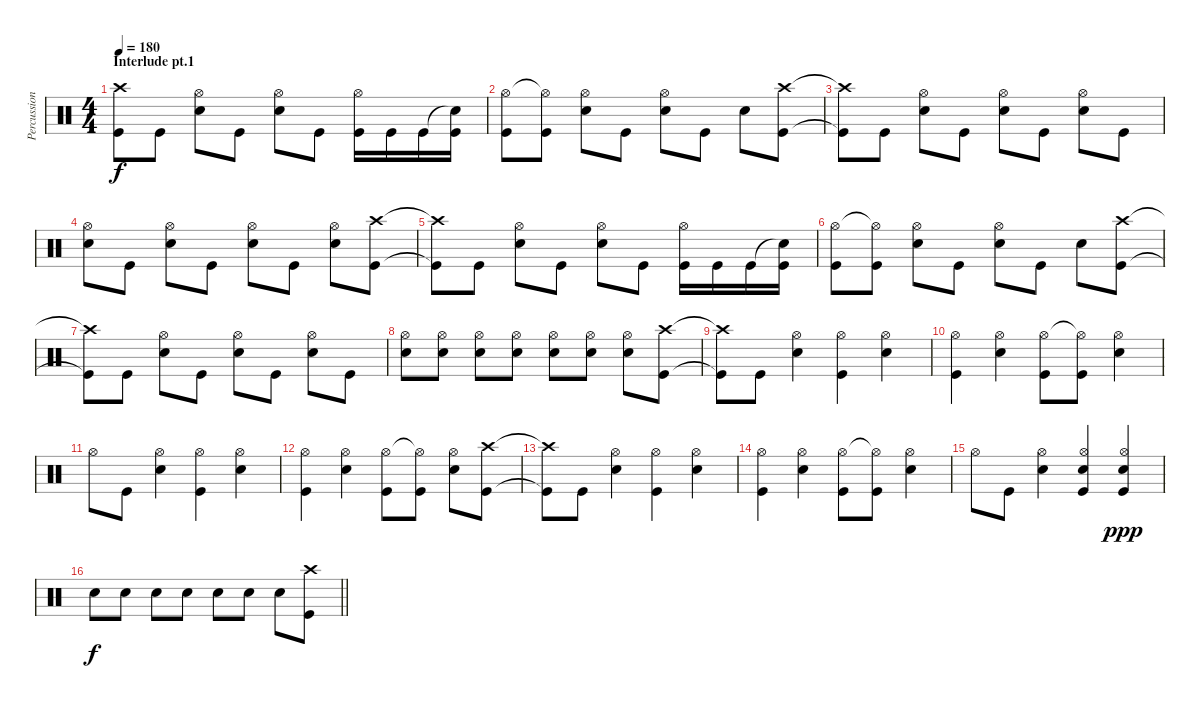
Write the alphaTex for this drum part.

\track ("Percussion" "Percussion") {instrument percussion}
\staff {score}
\articulation defaults
\ts (4 4)
\section ("" "Interlude pt.1")
\tempo 180
\clef neutral
\ks c
("Crash high (hit)"{t} "Kick (hit)"{t}).8{dy f} "Kick (hit)".8 ("Hi-Hat (open)" "Snare (hit) 2").8 "Kick (hit)".8 ("Hi-Hat (open)" "Snare (hit) 2").8 "Kick (hit)".8 ("Hi-Hat (open)" "Kick (hit)").16 "Kick (hit)".16 "Kick (hit)".16 ("Snare (hit)"{t} "Kick (hit)").16 |
("Hi-Hat (open)" "Kick (hit)").8 ("Hi-Hat (open)"{t} "Kick (hit)").8 ("Hi-Hat (open)" "Snare (hit) 2").8 "Kick (hit)".8 ("Hi-Hat (open)" "Snare (hit) 2").8 "Kick (hit)".8 "Snare (hit) 2".8 ("Crash high (hit)" "Kick (hit)").8 |
("Crash high (hit)"{t} "Kick (hit)"{t}).8 "Kick (hit)".8 ("Hi-Hat (open)" "Snare (hit) 2").8 "Kick (hit)".8 ("Hi-Hat (open)" "Snare (hit) 2").8 "Kick (hit)".8 ("Hi-Hat (open)" "Snare (hit) 2").8 "Kick (hit)".8 |
("Hi-Hat (open)" "Snare (hit) 2").8 "Kick (hit)".8 ("Hi-Hat (open)" "Snare (hit) 2").8 "Kick (hit)".8 ("Hi-Hat (open)" "Snare (hit) 2").8 "Kick (hit)".8 ("Hi-Hat (open)" "Snare (hit) 2").8 ("Crash high (hit)" "Kick (hit)").8 |
("Crash high (hit)"{t} "Kick (hit)"{t}).8 "Kick (hit)".8 ("Hi-Hat (open)" "Snare (hit) 2").8 "Kick (hit)".8 ("Hi-Hat (open)" "Snare (hit) 2").8 "Kick (hit)".8 ("Hi-Hat (open)" "Kick (hit)").16 "Kick (hit)".16 "Kick (hit)".16 ("Snare (hit)"{t} "Kick (hit)").16 |
("Hi-Hat (open)" "Kick (hit)").8 ("Hi-Hat (open)"{t} "Kick (hit)").8 ("Hi-Hat (open)" "Snare (hit) 2").8 "Kick (hit)".8 ("Hi-Hat (open)" "Snare (hit) 2").8 "Kick (hit)".8 "Snare (hit) 2".8 ("Crash high (hit)" "Kick (hit)").8 |
("Crash high (hit)"{t} "Kick (hit)"{t}).8 "Kick (hit)".8 ("Hi-Hat (open)" "Snare (hit) 2").8 "Kick (hit)".8 ("Hi-Hat (open)" "Snare (hit) 2").8 "Kick (hit)".8 ("Hi-Hat (open)" "Snare (hit) 2").8 "Kick (hit)".8 |
("Hi-Hat (open)" "Snare (hit) 2").8 ("Hi-Hat (open)" "Snare (hit) 2").8 ("Hi-Hat (open)" "Snare (hit) 2").8 ("Hi-Hat (open)" "Snare (hit) 2").8 ("Hi-Hat (open)" "Snare (hit) 2").8 ("Hi-Hat (open)" "Snare (hit) 2").8 ("Hi-Hat (open)" "Snare (hit) 2").8 ("Crash high (hit)" "Kick (hit)").8 |
("Crash high (hit)"{t} "Kick (hit)"{t}).8 "Kick (hit)".8 ("Hi-Hat (open)" "Snare (hit) 2").4 ("Hi-Hat (open)" "Kick (hit)").4 ("Hi-Hat (open)" "Snare (hit) 2").4 |
("Hi-Hat (open)" "Kick (hit)").4 ("Hi-Hat (open)" "Snare (hit) 2").4 ("Hi-Hat (open)" "Kick (hit)").8 ("Hi-Hat (open)"{t} "Kick (hit)").8 ("Hi-Hat (open)" "Snare (hit) 2").4 |
"Hi-Hat (open)".8 "Kick (hit)".8 ("Hi-Hat (open)" "Snare (hit) 2").4 ("Hi-Hat (open)" "Kick (hit)").4 ("Hi-Hat (open)" "Snare (hit) 2").4 |
("Hi-Hat (open)" "Kick (hit)").4 ("Hi-Hat (open)" "Snare (hit) 2").4 ("Hi-Hat (open)" "Kick (hit)").8 ("Hi-Hat (open)"{t} "Kick (hit)").8 ("Hi-Hat (open)" "Snare (hit) 2").8 ("Crash high (hit)" "Kick (hit)").8 |
("Crash high (hit)"{t} "Kick (hit)"{t}).8 "Kick (hit)".8 ("Hi-Hat (open)" "Snare (hit) 2").4 ("Hi-Hat (open)" "Kick (hit)").4 ("Hi-Hat (open)" "Snare (hit) 2").4 |
("Hi-Hat (open)" "Kick (hit)").4 ("Hi-Hat (open)" "Snare (hit) 2").4 ("Hi-Hat (open)" "Kick (hit)").8 ("Hi-Hat (open)"{t} "Kick (hit)").8 ("Hi-Hat (open)" "Snare (hit) 2").4 |
"Hi-Hat (open)".8 "Kick (hit)".8 ("Hi-Hat (open)" "Snare (hit) 2").4 ("Hi-Hat (open)" "Snare (hit) 2" "Kick (hit)").4 ("Hi-Hat (open)" "Snare (hit) 2" "Kick (hit)").4{dy ppp} |
\barLineRight lightlight "Snare (hit) 2".8{dy f} "Snare (hit) 2".8 "Snare (hit) 2".8 "Snare (hit) 2".8 "Snare (hit) 2".8 "Snare (hit) 2".8 "Snare (hit) 2".8
("Crash high (hit)" "Kick (hit)").8
